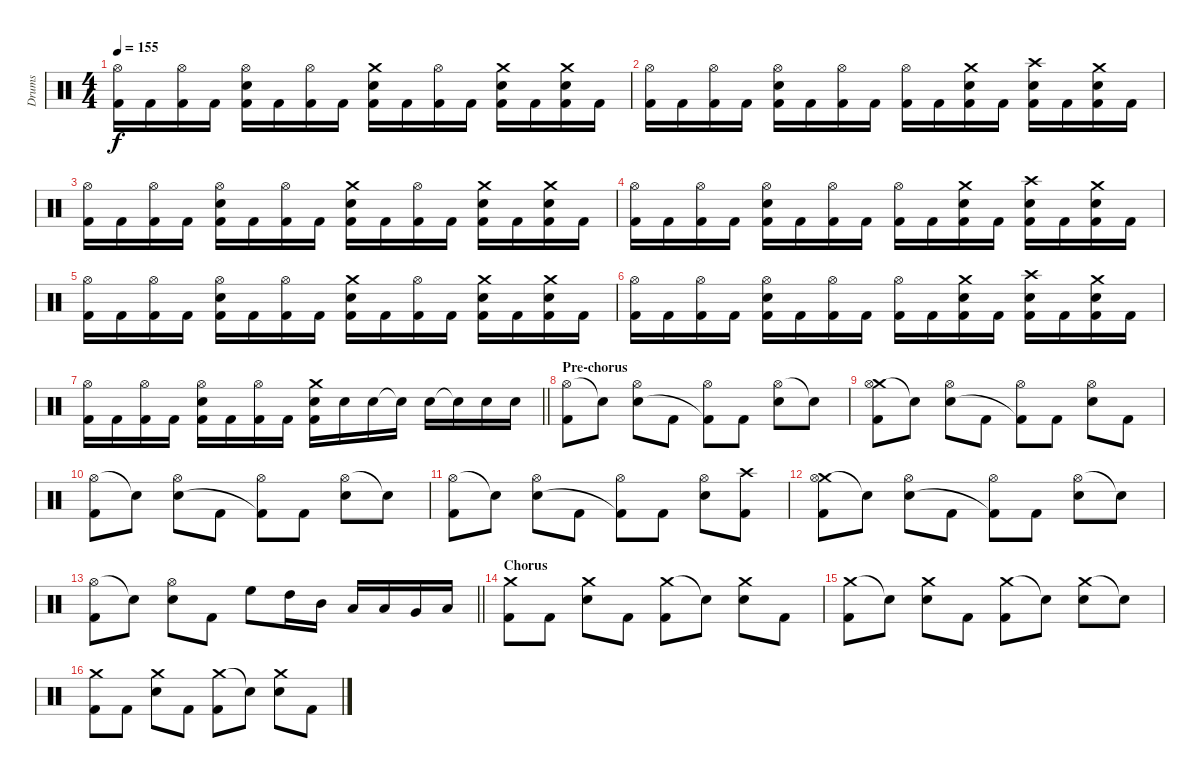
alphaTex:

\track ("Drums" "Drums") {instrument percussion}
\staff {score}
\articulation defaults
\ts (4 4)
\tempo 155
\clef neutral
\ks c
("Hi-Hat (open)" "Kick (hit) 2").16{dy f} "Kick (hit) 2".16 ("Hi-Hat (open)" "Kick (hit) 2").16 "Kick (hit) 2".16 ("Hi-Hat (open)" "Electric Snare (hit)" "Kick (hit) 2").16 "Kick (hit) 2".16 ("Hi-Hat (open)" "Kick (hit) 2").16 "Kick (hit) 2".16 ("Crash medium (hit)" "Electric Snare (hit)" "Kick (hit) 2").16 "Kick (hit) 2".16 ("Hi-Hat (open)" "Kick (hit) 2").16 "Kick (hit) 2".16 ("Crash medium (hit)" "Electric Snare (hit)" "Kick (hit) 2").16 "Kick (hit) 2".16 ("Crash medium (hit)" "Electric Snare (hit)" "Kick (hit) 2").16 "Kick (hit) 2".16 |
("Hi-Hat (open)" "Kick (hit) 2").16 "Kick (hit) 2".16 ("Hi-Hat (open)" "Kick (hit) 2").16 "Kick (hit) 2".16 ("Hi-Hat (open)" "Electric Snare (hit)" "Kick (hit) 2").16 "Kick (hit) 2".16 ("Hi-Hat (open)" "Kick (hit) 2").16 "Kick (hit) 2".16 ("Hi-Hat (open)" "Kick (hit) 2").16 "Kick (hit) 2".16 ("Crash medium (hit)" "Electric Snare (hit)" "Kick (hit) 2").16 "Kick (hit) 2".16 ("Crash high (hit)" "Electric Snare (hit)" "Kick (hit) 2").16 "Kick (hit) 2".16 ("Crash medium (hit)" "Electric Snare (hit)" "Kick (hit) 2").16 "Kick (hit) 2".16 |
("Hi-Hat (open)" "Kick (hit) 2").16 "Kick (hit) 2".16 ("Hi-Hat (open)" "Kick (hit) 2").16 "Kick (hit) 2".16 ("Hi-Hat (open)" "Electric Snare (hit)" "Kick (hit) 2").16 "Kick (hit) 2".16 ("Hi-Hat (open)" "Kick (hit) 2").16 "Kick (hit) 2".16 ("Crash medium (hit)" "Electric Snare (hit)" "Kick (hit) 2").16 "Kick (hit) 2".16 ("Hi-Hat (open)" "Kick (hit) 2").16 "Kick (hit) 2".16 ("Crash medium (hit)" "Electric Snare (hit)" "Kick (hit) 2").16 "Kick (hit) 2".16 ("Crash medium (hit)" "Electric Snare (hit)" "Kick (hit) 2").16 "Kick (hit) 2".16 |
("Hi-Hat (open)" "Kick (hit) 2").16 "Kick (hit) 2".16 ("Hi-Hat (open)" "Kick (hit) 2").16 "Kick (hit) 2".16 ("Hi-Hat (open)" "Electric Snare (hit)" "Kick (hit) 2").16 "Kick (hit) 2".16 ("Hi-Hat (open)" "Kick (hit) 2").16 "Kick (hit) 2".16 ("Hi-Hat (open)" "Kick (hit) 2").16 "Kick (hit) 2".16 ("Crash medium (hit)" "Electric Snare (hit)" "Kick (hit) 2").16 "Kick (hit) 2".16 ("Crash high (hit)" "Electric Snare (hit)" "Kick (hit) 2").16 "Kick (hit) 2".16 ("Crash medium (hit)" "Electric Snare (hit)" "Kick (hit) 2").16 "Kick (hit) 2".16 |
("Hi-Hat (open)" "Kick (hit) 2").16 "Kick (hit) 2".16 ("Hi-Hat (open)" "Kick (hit) 2").16 "Kick (hit) 2".16 ("Hi-Hat (open)" "Electric Snare (hit)" "Kick (hit) 2").16 "Kick (hit) 2".16 ("Hi-Hat (open)" "Kick (hit) 2").16 "Kick (hit) 2".16 ("Crash medium (hit)" "Electric Snare (hit)" "Kick (hit) 2").16 "Kick (hit) 2".16 ("Hi-Hat (open)" "Kick (hit) 2").16 "Kick (hit) 2".16 ("Crash medium (hit)" "Electric Snare (hit)" "Kick (hit) 2").16 "Kick (hit) 2".16 ("Crash medium (hit)" "Electric Snare (hit)" "Kick (hit) 2").16 "Kick (hit) 2".16 |
("Hi-Hat (open)" "Kick (hit) 2").16 "Kick (hit) 2".16 ("Hi-Hat (open)" "Kick (hit) 2").16 "Kick (hit) 2".16 ("Hi-Hat (open)" "Electric Snare (hit)" "Kick (hit) 2").16 "Kick (hit) 2".16 ("Hi-Hat (open)" "Kick (hit) 2").16 "Kick (hit) 2".16 ("Hi-Hat (open)" "Kick (hit) 2").16 "Kick (hit) 2".16 ("Crash medium (hit)" "Electric Snare (hit)" "Kick (hit) 2").16 "Kick (hit) 2".16 ("Crash high (hit)" "Electric Snare (hit)" "Kick (hit) 2").16 "Kick (hit) 2".16 ("Crash medium (hit)" "Electric Snare (hit)" "Kick (hit) 2").16 "Kick (hit) 2".16 |
\barLineRight lightlight
("Hi-Hat (open)" "Kick (hit) 2").16 "Kick (hit) 2".16 ("Hi-Hat (open)" "Kick (hit) 2").16 "Kick (hit) 2".16 ("Hi-Hat (open)" "Electric Snare (hit)" "Kick (hit) 2").16 "Kick (hit) 2".16 ("Hi-Hat (open)" "Kick (hit) 2").16 "Kick (hit) 2".16 ("Crash medium (hit)" "Electric Snare (hit)" "Kick (hit) 2").16 "Electric Snare (hit)".16 "Electric Snare (hit)".16 "Electric Snare (hit)"{t}.16 "Electric Snare (hit)".16 "Electric Snare (hit)"{t}.16 "Electric Snare (hit)".16 "Electric Snare (hit)".16 |
\section ("" "Pre-chorus")
("Hi-Hat (open)" "Kick (hit) 2").8 "Snare (hit)"{t}.8 ("Hi-Hat (open)" "Electric Snare (hit)").8 "Kick (hit) 2".8 ("Hi-Hat (open)" "Kick (hit) 2"{t}).8 "Kick (hit) 2".8 ("Hi-Hat (open)" "Electric Snare (hit)").8 "Snare (hit)"{t}.8 |
("Crash medium (hit)" "Hi-Hat (open)" "Kick (hit) 2").8 "Snare (hit)"{t}.8 ("Hi-Hat (open)" "Electric Snare (hit)").8 "Kick (hit) 2".8 ("Hi-Hat (open)" "Kick (hit) 2"{t}).8 "Kick (hit) 2".8 ("Hi-Hat (open)" "Electric Snare (hit)").8 "Kick (hit) 2".8 |
("Hi-Hat (open)" "Kick (hit) 2").8 "Snare (hit)"{t}.8 ("Hi-Hat (open)" "Electric Snare (hit)").8 "Kick (hit) 2".8 ("Hi-Hat (open)" "Kick (hit) 2"{t}).8 "Kick (hit) 2".8 ("Hi-Hat (open)" "Electric Snare (hit)").8 "Snare (hit)"{t}.8 |
("Hi-Hat (open)" "Kick (hit) 2").8 "Snare (hit)"{t}.8 ("Hi-Hat (open)" "Electric Snare (hit)").8 "Kick (hit) 2".8 ("Hi-Hat (open)" "Kick (hit) 2"{t}).8 "Kick (hit) 2".8 ("Hi-Hat (open)" "Electric Snare (hit)").8 ("Crash high (hit)" "Kick (hit) 2").8 |
("Crash medium (hit)" "Hi-Hat (open)" "Kick (hit) 2").8 "Snare (hit)"{t}.8 ("Hi-Hat (open)" "Electric Snare (hit)").8 "Kick (hit) 2".8 ("Hi-Hat (open)" "Kick (hit) 2"{t}).8 "Kick (hit) 2".8 ("Hi-Hat (open)" "Electric Snare (hit)").8 "Snare (hit)"{t}.8 |
\barLineRight lightlight
("Hi-Hat (open)" "Kick (hit) 2").8 "Snare (hit)"{t}.8 ("Hi-Hat (open)" "Electric Snare (hit)").8 "Kick (hit) 2".8 "High Floor Tom (hit)".8 "High Tom (hit)".16 "Mid Tom (hit)".16 "Low Tom (hit)".16 "Low Tom (hit)".16 "Very Low Tom (hit)".16 "Low Floor Tom (hit)".16 |
\section ("" "Chorus")
("Crash medium (hit)" "Kick (hit) 2").8 "Kick (hit) 2".8 ("Crash medium (hit)" "Electric Snare (hit)").8 "Kick (hit) 2".8 ("Crash medium (hit)" "Kick (hit) 2").8 "Snare (hit)"{t}.8 ("Crash medium (hit)" "Electric Snare (hit)").8 "Kick (hit) 2".8 |
("Crash medium (hit)" "Kick (hit) 2").8 "Snare (hit)"{t}.8 ("Crash medium (hit)" "Electric Snare (hit)").8 "Kick (hit) 2".8 ("Crash medium (hit)" "Kick (hit) 2").8 "Snare (hit)"{t}.8 ("Crash medium (hit)" "Electric Snare (hit)").8 "Snare (hit)"{t}.8 |
("Crash medium (hit)" "Kick (hit) 2").8 "Kick (hit) 2".8 ("Crash medium (hit)" "Electric Snare (hit)").8 "Kick (hit) 2".8 ("Crash medium (hit)" "Kick (hit) 2").8 "Snare (hit)"{t}.8 ("Crash medium (hit)" "Electric Snare (hit)").8 "Kick (hit) 2".8
